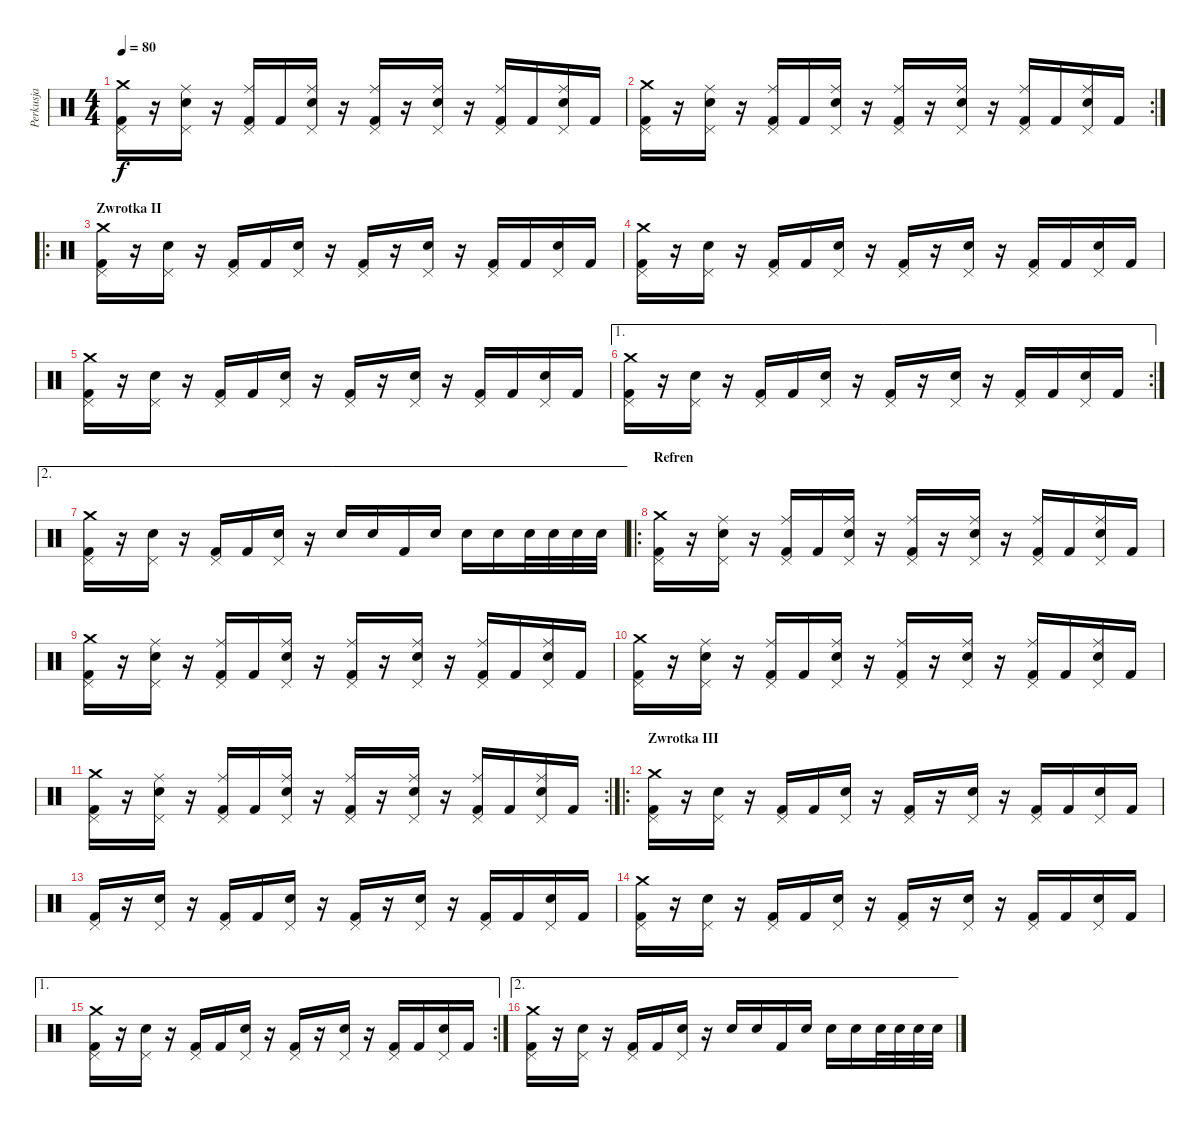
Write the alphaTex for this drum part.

\track ("Perkusja" "Perkusja") {instrument percussion}
\staff {score}
\articulation defaults
\ts (4 4)
\tempo 80
\clef neutral
\ks c
("Crash medium (hit)" "Pedal Hi-Hat (hit)" "Kick (hit) 2").16{dy f} r.16 ("Ride (middle)" "Pedal Hi-Hat (hit)" "Electric Snare (hit)").16 r.16 ("Ride (middle)" "Pedal Hi-Hat (hit)" "Kick (hit) 2").16 "Kick (hit) 2".16 ("Ride (middle)" "Pedal Hi-Hat (hit)" "Electric Snare (hit)").16 r.16 ("Ride (middle)" "Pedal Hi-Hat (hit)" "Kick (hit) 2").16 r.16 ("Ride (middle)" "Pedal Hi-Hat (hit)" "Electric Snare (hit)").16 r.16 ("Ride (middle)" "Pedal Hi-Hat (hit)" "Kick (hit) 2").16 "Kick (hit) 2".16 ("Ride (middle)" "Pedal Hi-Hat (hit)" "Electric Snare (hit)").16 "Kick (hit) 2".16 |
\rc 2
("Crash medium (hit)" "Pedal Hi-Hat (hit)" "Kick (hit) 2").16 r.16 ("Ride (middle)" "Pedal Hi-Hat (hit)" "Electric Snare (hit)").16 r.16 ("Ride (middle)" "Pedal Hi-Hat (hit)" "Kick (hit) 2").16 "Kick (hit) 2".16 ("Ride (middle)" "Pedal Hi-Hat (hit)" "Electric Snare (hit)").16 r.16 ("Ride (middle)" "Pedal Hi-Hat (hit)" "Kick (hit) 2").16 r.16 ("Ride (middle)" "Pedal Hi-Hat (hit)" "Electric Snare (hit)").16 r.16 ("Ride (middle)" "Pedal Hi-Hat (hit)" "Kick (hit) 2").16 "Kick (hit) 2".16 ("Ride (middle)" "Pedal Hi-Hat (hit)" "Electric Snare (hit)").16 "Kick (hit) 2".16 |
\ro
\section ("" "Zwrotka II")
("Crash medium (hit)" "Pedal Hi-Hat (hit)" "Kick (hit) 2").16 r.16 ("Pedal Hi-Hat (hit)" "Electric Snare (hit)").16 r.16 ("Pedal Hi-Hat (hit)" "Kick (hit) 2").16 "Kick (hit) 2".16 ("Pedal Hi-Hat (hit)" "Electric Snare (hit)").16 r.16 ("Pedal Hi-Hat (hit)" "Kick (hit) 2").16 r.16 ("Pedal Hi-Hat (hit)" "Electric Snare (hit)").16 r.16 ("Pedal Hi-Hat (hit)" "Kick (hit) 2").16 "Kick (hit) 2".16 ("Pedal Hi-Hat (hit)" "Electric Snare (hit)").16 "Kick (hit) 2".16 |
("Crash medium (hit)" "Pedal Hi-Hat (hit)" "Kick (hit) 2").16 r.16 ("Pedal Hi-Hat (hit)" "Electric Snare (hit)").16 r.16 ("Pedal Hi-Hat (hit)" "Kick (hit) 2").16 "Kick (hit) 2".16 ("Pedal Hi-Hat (hit)" "Electric Snare (hit)").16 r.16 ("Pedal Hi-Hat (hit)" "Kick (hit) 2").16 r.16 ("Pedal Hi-Hat (hit)" "Electric Snare (hit)").16 r.16 ("Pedal Hi-Hat (hit)" "Kick (hit) 2").16 "Kick (hit) 2".16 ("Pedal Hi-Hat (hit)" "Electric Snare (hit)").16 "Kick (hit) 2".16 |
("Crash medium (hit)" "Pedal Hi-Hat (hit)" "Kick (hit) 2").16 r.16 ("Pedal Hi-Hat (hit)" "Electric Snare (hit)").16 r.16 ("Pedal Hi-Hat (hit)" "Kick (hit) 2").16 "Kick (hit) 2".16 ("Pedal Hi-Hat (hit)" "Electric Snare (hit)").16 r.16 ("Pedal Hi-Hat (hit)" "Kick (hit) 2").16 r.16 ("Pedal Hi-Hat (hit)" "Electric Snare (hit)").16 r.16 ("Pedal Hi-Hat (hit)" "Kick (hit) 2").16 "Kick (hit) 2".16 ("Pedal Hi-Hat (hit)" "Electric Snare (hit)").16 "Kick (hit) 2".16 |
\ae 1
\rc 2
("Crash medium (hit)" "Pedal Hi-Hat (hit)" "Kick (hit) 2").16 r.16 ("Pedal Hi-Hat (hit)" "Electric Snare (hit)").16 r.16 ("Pedal Hi-Hat (hit)" "Kick (hit) 2").16 "Kick (hit) 2".16 ("Pedal Hi-Hat (hit)" "Electric Snare (hit)").16 r.16 ("Pedal Hi-Hat (hit)" "Kick (hit) 2").16 r.16 ("Pedal Hi-Hat (hit)" "Electric Snare (hit)").16 r.16 ("Pedal Hi-Hat (hit)" "Kick (hit) 2").16 "Kick (hit) 2".16 ("Pedal Hi-Hat (hit)" "Electric Snare (hit)").16 "Kick (hit) 2".16 |
\ae 2
("Crash medium (hit)" "Pedal Hi-Hat (hit)" "Kick (hit) 2").16 r.16 ("Pedal Hi-Hat (hit)" "Electric Snare (hit)").16 r.16 ("Pedal Hi-Hat (hit)" "Kick (hit) 2").16 "Kick (hit) 2".16 ("Pedal Hi-Hat (hit)" "Electric Snare (hit)").16 r.16 "Electric Snare (hit)".16 "Electric Snare (hit)".16 "Kick (hit) 2".16 "Electric Snare (hit)".16 "Electric Snare (hit)".16 "Electric Snare (hit)".16 "Electric Snare (hit)".32 "Electric Snare (hit)".32 "Electric Snare (hit)".32 "Electric Snare (hit)".32 |
\ro
\section ("" "Refren")
("Crash medium (hit)" "Pedal Hi-Hat (hit)" "Kick (hit) 2").16 r.16 ("Ride (middle)" "Pedal Hi-Hat (hit)" "Electric Snare (hit)").16 r.16 ("Ride (middle)" "Pedal Hi-Hat (hit)" "Kick (hit) 2").16 "Kick (hit) 2".16 ("Ride (middle)" "Pedal Hi-Hat (hit)" "Electric Snare (hit)").16 r.16 ("Ride (middle)" "Pedal Hi-Hat (hit)" "Kick (hit) 2").16 r.16 ("Ride (middle)" "Pedal Hi-Hat (hit)" "Electric Snare (hit)").16 r.16 ("Ride (middle)" "Pedal Hi-Hat (hit)" "Kick (hit) 2").16 "Kick (hit) 2".16 ("Ride (middle)" "Pedal Hi-Hat (hit)" "Electric Snare (hit)").16 "Kick (hit) 2".16 |
("Crash medium (hit)" "Pedal Hi-Hat (hit)" "Kick (hit) 2").16 r.16 ("Ride (middle)" "Pedal Hi-Hat (hit)" "Electric Snare (hit)").16 r.16 ("Ride (middle)" "Pedal Hi-Hat (hit)" "Kick (hit) 2").16 "Kick (hit) 2".16 ("Ride (middle)" "Pedal Hi-Hat (hit)" "Electric Snare (hit)").16 r.16 ("Ride (middle)" "Pedal Hi-Hat (hit)" "Kick (hit) 2").16 r.16 ("Ride (middle)" "Pedal Hi-Hat (hit)" "Electric Snare (hit)").16 r.16 ("Ride (middle)" "Pedal Hi-Hat (hit)" "Kick (hit) 2").16 "Kick (hit) 2".16 ("Ride (middle)" "Pedal Hi-Hat (hit)" "Electric Snare (hit)").16 "Kick (hit) 2".16 |
("Crash medium (hit)" "Pedal Hi-Hat (hit)" "Kick (hit) 2").16 r.16 ("Ride (middle)" "Pedal Hi-Hat (hit)" "Electric Snare (hit)").16 r.16 ("Ride (middle)" "Pedal Hi-Hat (hit)" "Kick (hit) 2").16 "Kick (hit) 2".16 ("Ride (middle)" "Pedal Hi-Hat (hit)" "Electric Snare (hit)").16 r.16 ("Ride (middle)" "Pedal Hi-Hat (hit)" "Kick (hit) 2").16 r.16 ("Ride (middle)" "Pedal Hi-Hat (hit)" "Electric Snare (hit)").16 r.16 ("Ride (middle)" "Pedal Hi-Hat (hit)" "Kick (hit) 2").16 "Kick (hit) 2".16 ("Ride (middle)" "Pedal Hi-Hat (hit)" "Electric Snare (hit)").16 "Kick (hit) 2".16 |
\rc 2
("Crash medium (hit)" "Pedal Hi-Hat (hit)" "Kick (hit) 2").16 r.16 ("Ride (middle)" "Pedal Hi-Hat (hit)" "Electric Snare (hit)").16 r.16 ("Ride (middle)" "Pedal Hi-Hat (hit)" "Kick (hit) 2").16 "Kick (hit) 2".16 ("Ride (middle)" "Pedal Hi-Hat (hit)" "Electric Snare (hit)").16 r.16 ("Ride (middle)" "Pedal Hi-Hat (hit)" "Kick (hit) 2").16 r.16 ("Ride (middle)" "Pedal Hi-Hat (hit)" "Electric Snare (hit)").16 r.16 ("Ride (middle)" "Pedal Hi-Hat (hit)" "Kick (hit) 2").16 "Kick (hit) 2".16 ("Ride (middle)" "Pedal Hi-Hat (hit)" "Electric Snare (hit)").16 "Kick (hit) 2".16 |
\ro
\section ("" "Zwrotka III")
("Crash medium (hit)" "Pedal Hi-Hat (hit)" "Kick (hit) 2").16 r.16 ("Pedal Hi-Hat (hit)" "Electric Snare (hit)").16 r.16 ("Pedal Hi-Hat (hit)" "Kick (hit) 2").16 "Kick (hit) 2".16 ("Pedal Hi-Hat (hit)" "Electric Snare (hit)").16 r.16 ("Pedal Hi-Hat (hit)" "Kick (hit) 2").16 r.16 ("Pedal Hi-Hat (hit)" "Electric Snare (hit)").16 r.16 ("Pedal Hi-Hat (hit)" "Kick (hit) 2").16 "Kick (hit) 2".16 ("Pedal Hi-Hat (hit)" "Electric Snare (hit)").16 "Kick (hit) 2".16 |
("Pedal Hi-Hat (hit)" "Kick (hit) 2").16 r.16 ("Pedal Hi-Hat (hit)" "Electric Snare (hit)").16 r.16 ("Pedal Hi-Hat (hit)" "Kick (hit) 2").16 "Kick (hit) 2".16 ("Pedal Hi-Hat (hit)" "Electric Snare (hit)").16 r.16 ("Pedal Hi-Hat (hit)" "Kick (hit) 2").16 r.16 ("Pedal Hi-Hat (hit)" "Electric Snare (hit)").16 r.16 ("Pedal Hi-Hat (hit)" "Kick (hit) 2").16 "Kick (hit) 2".16 ("Pedal Hi-Hat (hit)" "Electric Snare (hit)").16 "Kick (hit) 2".16 |
("Crash medium (hit)" "Pedal Hi-Hat (hit)" "Kick (hit) 2").16 r.16 ("Pedal Hi-Hat (hit)" "Electric Snare (hit)").16 r.16 ("Pedal Hi-Hat (hit)" "Kick (hit) 2").16 "Kick (hit) 2".16 ("Pedal Hi-Hat (hit)" "Electric Snare (hit)").16 r.16 ("Pedal Hi-Hat (hit)" "Kick (hit) 2").16 r.16 ("Pedal Hi-Hat (hit)" "Electric Snare (hit)").16 r.16 ("Pedal Hi-Hat (hit)" "Kick (hit) 2").16 "Kick (hit) 2".16 ("Pedal Hi-Hat (hit)" "Electric Snare (hit)").16 "Kick (hit) 2".16 |
\ae 1
\rc 2
("Crash medium (hit)" "Pedal Hi-Hat (hit)" "Kick (hit) 2").16 r.16 ("Pedal Hi-Hat (hit)" "Electric Snare (hit)").16 r.16 ("Pedal Hi-Hat (hit)" "Kick (hit) 2").16 "Kick (hit) 2".16 ("Pedal Hi-Hat (hit)" "Electric Snare (hit)").16 r.16 ("Pedal Hi-Hat (hit)" "Kick (hit) 2").16 r.16 ("Pedal Hi-Hat (hit)" "Electric Snare (hit)").16 r.16 ("Pedal Hi-Hat (hit)" "Kick (hit) 2").16 "Kick (hit) 2".16 ("Pedal Hi-Hat (hit)" "Electric Snare (hit)").16 "Kick (hit) 2".16 |
\ae 2
("Crash medium (hit)" "Pedal Hi-Hat (hit)" "Kick (hit) 2").16 r.16 ("Pedal Hi-Hat (hit)" "Electric Snare (hit)").16 r.16 ("Pedal Hi-Hat (hit)" "Kick (hit) 2").16 "Kick (hit) 2".16 ("Pedal Hi-Hat (hit)" "Electric Snare (hit)").16 r.16 "Electric Snare (hit)".16 "Electric Snare (hit)".16 "Kick (hit) 2".16 "Electric Snare (hit)".16 "Electric Snare (hit)".16 "Electric Snare (hit)".16 "Electric Snare (hit)".32 "Electric Snare (hit)".32 "Electric Snare (hit)".32 "Electric Snare (hit)".32
